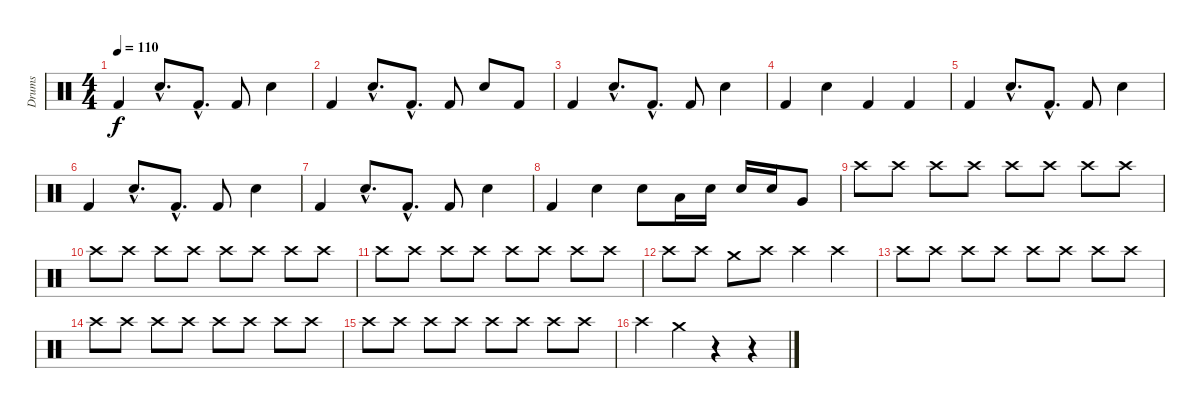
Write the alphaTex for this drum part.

\track ("Drums" "Drums") {instrument percussion}
\staff {score}
\articulation defaults
\ts (4 4)
\tempo 110
\clef neutral
\ks c "Kick (hit) 2".4{dy f} "Electric Snare (hit)"{hac}.8{d} "Kick (hit) 2"{hac}.8{d} "Kick (hit) 2".8 "Electric Snare (hit)".4
|
"Kick (hit) 2".4 "Electric Snare (hit)"{hac}.8{d} "Kick (hit) 2"{hac}.8{d} "Kick (hit) 2".8 "Electric Snare (hit)".8 "Kick (hit) 2".8 |
"Kick (hit) 2".4 "Electric Snare (hit)"{hac}.8{d} "Kick (hit) 2"{hac}.8{d} "Kick (hit) 2".8 "Electric Snare (hit)".4 |
"Kick (hit) 2".4 "Electric Snare (hit)".4 "Kick (hit) 2".4 "Kick (hit) 2".4 |
"Kick (hit) 2".4 "Electric Snare (hit)"{hac}.8{d} "Kick (hit) 2"{hac}.8{d} "Kick (hit) 2".8 "Electric Snare (hit)".4 |
"Kick (hit) 2".4 "Electric Snare (hit)"{hac}.8{d} "Kick (hit) 2"{hac}.8{d} "Kick (hit) 2".8 "Electric Snare (hit)".4 |
"Kick (hit) 2".4 "Electric Snare (hit)"{hac}.8{d} "Kick (hit) 2"{hac}.8{d} "Kick (hit) 2".8 "Electric Snare (hit)".4 |
"Kick (hit) 2".4 "Electric Snare (hit)".4 "Electric Snare (hit)".8 "Low Tom (hit)".16 "Electric Snare (hit)".16 "Electric Snare (hit)".16 "Electric Snare (hit)".16 "Very Low Tom (hit)".8 |
"Crash high (hit)".8 "Crash high (hit)".8 "Crash high (hit)".8 "Crash high (hit)".8 "Crash high (hit)".8 "Crash high (hit)".8 "Crash high (hit)".8 "Crash high (hit)".8 |
"Crash high (hit)".8 "Crash high (hit)".8 "Crash high (hit)".8 "Crash high (hit)".8 "Crash high (hit)".8 "Crash high (hit)".8 "Crash high (hit)".8 "Crash high (hit)".8 |
"Crash high (hit)".8 "Crash high (hit)".8 "Crash high (hit)".8 "Crash high (hit)".8 "Crash high (hit)".8 "Crash high (hit)".8 "Crash high (hit)".8 "Crash high (hit)".8 |
"Crash high (hit)".8 "Crash high (hit)".8 "Crash medium (hit)".8 "Crash high (hit)".8 "Crash high (hit)".4 "Crash high (hit)".4 |
"Crash high (hit)".8 "Crash high (hit)".8 "Crash high (hit)".8 "Crash high (hit)".8 "Crash high (hit)".8 "Crash high (hit)".8 "Crash high (hit)".8 "Crash high (hit)".8 |
"Crash high (hit)".8 "Crash high (hit)".8 "Crash high (hit)".8 "Crash high (hit)".8 "Crash high (hit)".8 "Crash high (hit)".8 "Crash high (hit)".8 "Crash high (hit)".8 |
"Crash high (hit)".8 "Crash high (hit)".8 "Crash high (hit)".8 "Crash high (hit)".8 "Crash high (hit)".8 "Crash high (hit)".8 "Crash high (hit)".8 "Crash high (hit)".8 |
"Crash high (hit)".4 "Crash medium (hit)".4 r.4 r.4
